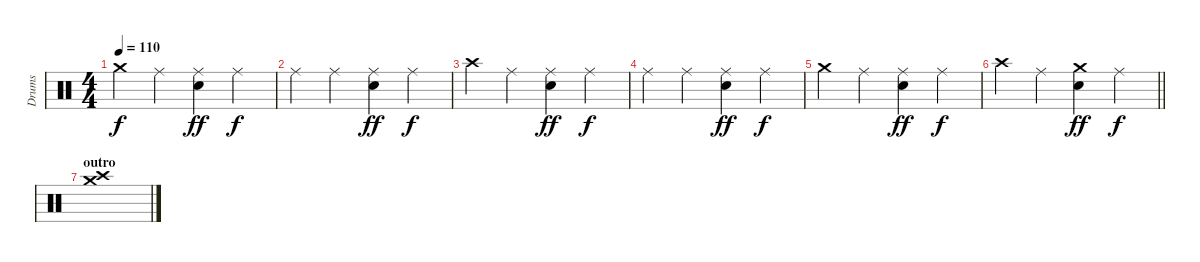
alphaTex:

\track ("Drums" "Drums") {instrument percussion}
\staff {score}
\articulation defaults
\ts (4 4)
\tempo 110
\clef neutral
\ks c "Crash medium (hit)".4{dy f} "Ride (middle)".4
("Ride (middle)" "Snare (hit) 2").4{dy ff} "Ride (middle)".4{dy f} |
"Ride (middle)".4 "Ride (middle)".4 ("Ride (middle)" "Snare (hit) 2").4{dy ff} "Ride (middle)".4{dy f} |
"Crash high (hit)".4 "Ride (middle)".4 ("Ride (middle)" "Snare (hit) 2").4{dy ff} "Ride (middle)".4{dy f} |
"Ride (middle)".4 "Ride (middle)".4 ("Ride (middle)" "Snare (hit) 2").4{dy ff} "Ride (middle)".4{dy f} |
"Crash medium (hit)".4 "Ride (middle)".4 ("Ride (middle)" "Snare (hit) 2").4{dy ff} "Ride (middle)".4{dy f} |
\barLineRight lightlight "Crash high (hit)".4 "Ride (middle)".4
("Crash medium (hit)" "Snare (hit) 2").4{dy ff} "Ride (middle)".4{dy f} |
\section ("" "outro")
("Crash high (hit)" "Crash medium (hit)").1
